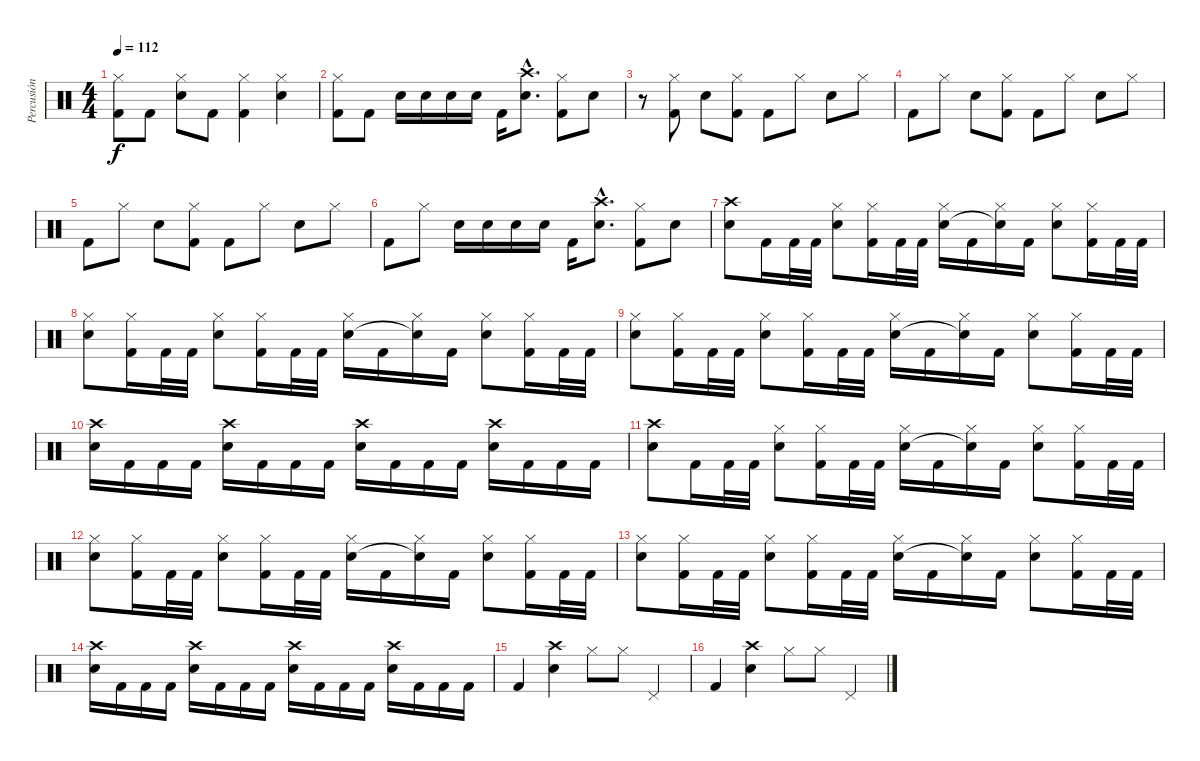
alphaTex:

\track ("Percusión" "Percusión") {instrument percussion}
\staff {score}
\articulation defaults
\ts (4 4)
\tempo 112
\clef neutral
\ks c
("Hi-Hat (closed)" "Kick (hit) 2").8{dy f} "Kick (hit) 2".8 ("Hi-Hat (closed)" "Electric Snare (hit)").8 "Kick (hit) 2".8 ("Hi-Hat (closed)" "Kick (hit) 2").4 ("Hi-Hat (closed)" "Electric Snare (hit)").4 |
("Hi-Hat (closed)" "Kick (hit) 2").8 "Kick (hit) 2".8 "Electric Snare (hit)".16 "Electric Snare (hit)".16 "Electric Snare (hit)".16 "Electric Snare (hit)".16 "Kick (hit) 2".16 ("Crash high (hit)"{hac} "Electric Snare (hit)"{hac}).8{d} ("Hi-Hat (closed)" "Kick (hit) 2").8 "Electric Snare (hit)".8 |
r.8 ("Hi-Hat (closed)" "Kick (hit) 2").8 "Electric Snare (hit)".8 ("Hi-Hat (closed)" "Kick (hit) 2").8 "Kick (hit) 2".8 "Hi-Hat (closed)".8 "Electric Snare (hit)".8 "Hi-Hat (closed)".8 |
"Kick (hit) 2".8 "Hi-Hat (closed)".8 "Electric Snare (hit)".8 ("Hi-Hat (closed)" "Kick (hit) 2").8 "Kick (hit) 2".8 "Hi-Hat (closed)".8 "Electric Snare (hit)".8 "Hi-Hat (closed)".8 |
"Kick (hit) 2".8 "Hi-Hat (closed)".8 "Electric Snare (hit)".8 ("Hi-Hat (closed)" "Kick (hit) 2").8 "Kick (hit) 2".8 "Hi-Hat (closed)".8 "Electric Snare (hit)".8 "Hi-Hat (closed)".8 |
"Kick (hit) 2".8 "Hi-Hat (closed)".8 "Electric Snare (hit)".16 "Electric Snare (hit)".16 "Electric Snare (hit)".16 "Electric Snare (hit)".16 "Kick (hit) 2".16 ("Crash high (hit)"{hac} "Electric Snare (hit)"{hac}).8{d} ("Hi-Hat (closed)" "Kick (hit) 2").8 "Electric Snare (hit)".8 |
("Crash high (hit)" "Electric Snare (hit)").8 "Kick (hit) 2".16 "Kick (hit) 2".32 "Kick (hit) 2".32 ("Hi-Hat (closed)" "Electric Snare (hit)").8 ("Hi-Hat (closed)" "Kick (hit) 2").16 "Kick (hit) 2".32 "Kick (hit) 2".32 ("Hi-Hat (closed)" "Electric Snare (hit)").16 "Kick (hit) 2".16 ("Hi-Hat (closed)" "Snare (hit)"{t}).16 "Kick (hit) 2".16 ("Hi-Hat (closed)" "Electric Snare (hit)").8 ("Hi-Hat (closed)" "Kick (hit) 2").16 "Kick (hit) 2".32 "Kick (hit) 2".32 |
("Hi-Hat (closed)" "Electric Snare (hit)").8 ("Hi-Hat (closed)" "Kick (hit) 2").16 "Kick (hit) 2".32 "Kick (hit) 2".32 ("Hi-Hat (closed)" "Electric Snare (hit)").8 ("Hi-Hat (closed)" "Kick (hit) 2").16 "Kick (hit) 2".32 "Kick (hit) 2".32 ("Hi-Hat (closed)" "Electric Snare (hit)").16 "Kick (hit) 2".16 ("Hi-Hat (closed)" "Snare (hit)"{t}).16 "Kick (hit) 2".16 ("Hi-Hat (closed)" "Electric Snare (hit)").8 ("Hi-Hat (closed)" "Kick (hit) 2").16 "Kick (hit) 2".32 "Kick (hit) 2".32 |
("Hi-Hat (closed)" "Electric Snare (hit)").8 ("Hi-Hat (closed)" "Kick (hit) 2").16 "Kick (hit) 2".32 "Kick (hit) 2".32 ("Hi-Hat (closed)" "Electric Snare (hit)").8 ("Hi-Hat (closed)" "Kick (hit) 2").16 "Kick (hit) 2".32 "Kick (hit) 2".32 ("Hi-Hat (closed)" "Electric Snare (hit)").16 "Kick (hit) 2".16 ("Hi-Hat (closed)" "Snare (hit)"{t}).16 "Kick (hit) 2".16 ("Hi-Hat (closed)" "Electric Snare (hit)").8 ("Hi-Hat (closed)" "Kick (hit) 2").16 "Kick (hit) 2".32 "Kick (hit) 2".32 |
("Crash high (hit)" "Electric Snare (hit)").16 "Kick (hit) 2".16 "Kick (hit) 2".16 "Kick (hit) 2".16 ("Crash high (hit)" "Electric Snare (hit)").16 "Kick (hit) 2".16 "Kick (hit) 2".16 "Kick (hit) 2".16 ("Crash high (hit)" "Electric Snare (hit)").16 "Kick (hit) 2".16 "Kick (hit) 2".16 "Kick (hit) 2".16 ("Crash high (hit)" "Electric Snare (hit)").16 "Kick (hit) 2".16 "Kick (hit) 2".16 "Kick (hit) 2".16 |
("Crash high (hit)" "Electric Snare (hit)").8 "Kick (hit) 2".16 "Kick (hit) 2".32 "Kick (hit) 2".32 ("Hi-Hat (closed)" "Electric Snare (hit)").8 ("Hi-Hat (closed)" "Kick (hit) 2").16 "Kick (hit) 2".32 "Kick (hit) 2".32 ("Hi-Hat (closed)" "Electric Snare (hit)").16 "Kick (hit) 2".16 ("Hi-Hat (closed)" "Snare (hit)"{t}).16 "Kick (hit) 2".16 ("Hi-Hat (closed)" "Electric Snare (hit)").8 ("Hi-Hat (closed)" "Kick (hit) 2").16 "Kick (hit) 2".32 "Kick (hit) 2".32 |
("Hi-Hat (closed)" "Electric Snare (hit)").8 ("Hi-Hat (closed)" "Kick (hit) 2").16 "Kick (hit) 2".32 "Kick (hit) 2".32 ("Hi-Hat (closed)" "Electric Snare (hit)").8 ("Hi-Hat (closed)" "Kick (hit) 2").16 "Kick (hit) 2".32 "Kick (hit) 2".32 ("Hi-Hat (closed)" "Electric Snare (hit)").16 "Kick (hit) 2".16 ("Hi-Hat (closed)" "Snare (hit)"{t}).16 "Kick (hit) 2".16 ("Hi-Hat (closed)" "Electric Snare (hit)").8 ("Hi-Hat (closed)" "Kick (hit) 2").16 "Kick (hit) 2".32 "Kick (hit) 2".32 |
("Hi-Hat (closed)" "Electric Snare (hit)").8 ("Hi-Hat (closed)" "Kick (hit) 2").16 "Kick (hit) 2".32 "Kick (hit) 2".32 ("Hi-Hat (closed)" "Electric Snare (hit)").8 ("Hi-Hat (closed)" "Kick (hit) 2").16 "Kick (hit) 2".32 "Kick (hit) 2".32 ("Hi-Hat (closed)" "Electric Snare (hit)").16 "Kick (hit) 2".16 ("Hi-Hat (closed)" "Snare (hit)"{t}).16 "Kick (hit) 2".16 ("Hi-Hat (closed)" "Electric Snare (hit)").8 ("Hi-Hat (closed)" "Kick (hit) 2").16 "Kick (hit) 2".32 "Kick (hit) 2".32 |
("Crash high (hit)" "Electric Snare (hit)").16 "Kick (hit) 2".16 "Kick (hit) 2".16 "Kick (hit) 2".16 ("Crash high (hit)" "Electric Snare (hit)").16 "Kick (hit) 2".16 "Kick (hit) 2".16 "Kick (hit) 2".16 ("Crash high (hit)" "Electric Snare (hit)").16 "Kick (hit) 2".16 "Kick (hit) 2".16 "Kick (hit) 2".16 ("Crash high (hit)" "Electric Snare (hit)").16 "Kick (hit) 2".16 "Kick (hit) 2".16 "Kick (hit) 2".16 |
"Kick (hit) 2".4 ("Crash high (hit)" "Electric Snare (hit)").4 "Hi-Hat (closed)".8 "Hi-Hat (closed)".8 "Pedal Hi-Hat (hit)".4 |
"Kick (hit) 2".4 ("Crash high (hit)" "Electric Snare (hit)").4 "Hi-Hat (closed)".8 "Hi-Hat (closed)".8 "Pedal Hi-Hat (hit)".4
